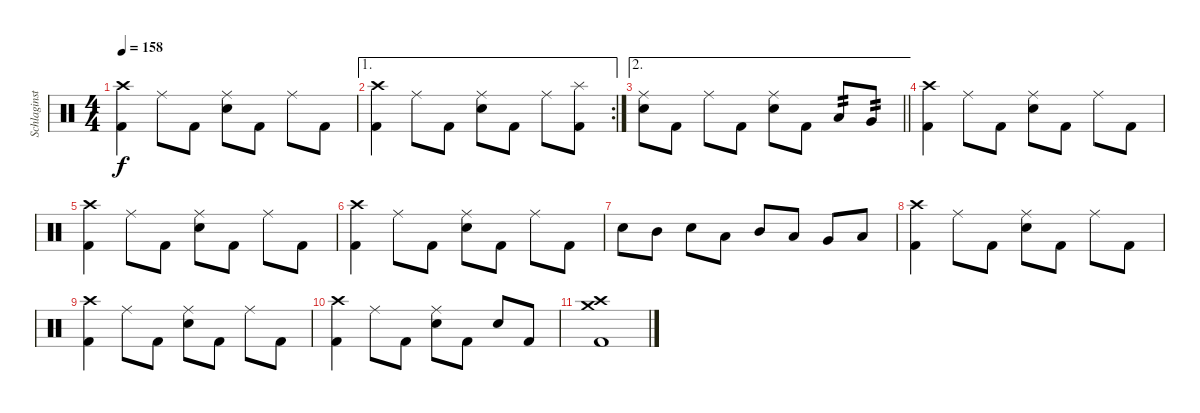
\track ("Schlaginstrumente - Auswahl" "Schlaginst") {instrument percussion}
\staff {score}
\articulation defaults
\ts (4 4)
\tempo 158
\clef neutral
\ks c
("Crash high (hit)" "Kick (hit) 2").4{dy f} "Ride (middle)".8 "Kick (hit) 2".8 ("Ride (middle)" "Snare (hit) 2").8 "Kick (hit) 2".8 "Ride (middle)".8 "Kick (hit) 2".8 |
\ae 1
\rc 2
("Crash high (hit)" "Kick (hit) 2").4 "Ride (middle)".8 "Kick (hit) 2".8 ("Ride (middle)" "Snare (hit) 2").8 "Kick (hit) 2".8 "Ride (middle)".8 ("Splash (hit)" "Kick (hit) 2").8 |
\ae 2
\barLineRight lightlight
("Ride (middle)" "Snare (hit) 2").8 "Kick (hit) 2".8 "Ride (middle)".8 "Kick (hit) 2".8 ("Ride (middle)" "Snare (hit) 2").8 "Kick (hit) 2".8 "Low Tom (hit)".8{tp 2} "Very Low Tom (hit)".8{tp 2} |
("Crash high (hit)" "Kick (hit) 2").4 "Ride (middle)".8 "Kick (hit) 2".8 ("Ride (middle)" "Snare (hit) 2").8 "Kick (hit) 2".8 "Ride (middle)".8 "Kick (hit) 2".8 |
("Crash high (hit)" "Kick (hit) 2").4 "Ride (middle)".8 "Kick (hit) 2".8 ("Ride (middle)" "Snare (hit) 2").8 "Kick (hit) 2".8 "Ride (middle)".8 "Kick (hit) 2".8 |
("Crash high (hit)" "Kick (hit) 2").4 "Ride (middle)".8 "Kick (hit) 2".8 ("Ride (middle)" "Snare (hit) 2").8 "Kick (hit) 2".8 "Ride (middle)".8 "Kick (hit) 2".8 |
"Snare (hit) 2".8 "Mid Tom (hit)".8 "Snare (hit) 2".8 "Low Tom (hit)".8 "Mid Tom (hit)".8 "Low Tom (hit)".8 "Very Low Tom (hit)".8 "Low Floor Tom (hit)".8 |
("Crash high (hit)" "Kick (hit) 2").4 "Ride (middle)".8 "Kick (hit) 2".8 ("Ride (middle)" "Snare (hit) 2").8 "Kick (hit) 2".8 "Ride (middle)".8 "Kick (hit) 2".8 |
("Crash high (hit)" "Kick (hit) 2").4 "Ride (middle)".8 "Kick (hit) 2".8 ("Ride (middle)" "Snare (hit) 2").8 "Kick (hit) 2".8 "Ride (middle)".8 "Kick (hit) 2".8 |
("Crash high (hit)" "Kick (hit) 2").4 "Ride (middle)".8 "Kick (hit) 2".8 ("Ride (middle)" "Snare (hit) 2").8 "Kick (hit) 2".8 "Snare (hit) 2".8 "Kick (hit) 2".8 |
("Crash high (hit)" "Crash medium (hit)" "Kick (hit) 2").1
